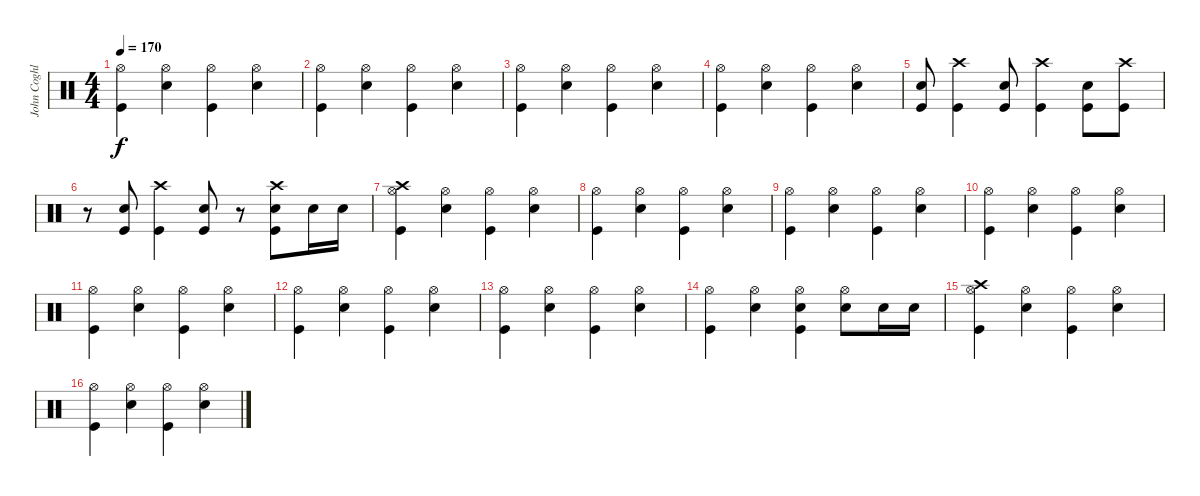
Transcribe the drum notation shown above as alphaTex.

\track ("John Coghlan" "John Coghl") {instrument percussion}
\staff {score}
\articulation defaults
\ts (4 4)
\tempo 170
\clef neutral
\ks c
("Hi-Hat (open)" "Kick (hit)").4{dy f} ("Electric Snare (hit)" "Hi-Hat (open)").4 ("Hi-Hat (open)" "Kick (hit)").4 ("Electric Snare (hit)" "Hi-Hat (open)").4 |
("Hi-Hat (open)" "Kick (hit)").4 ("Electric Snare (hit)" "Hi-Hat (open)").4 ("Hi-Hat (open)" "Kick (hit)").4 ("Electric Snare (hit)" "Hi-Hat (open)").4 |
("Hi-Hat (open)" "Kick (hit)").4 ("Electric Snare (hit)" "Hi-Hat (open)").4 ("Hi-Hat (open)" "Kick (hit)").4 ("Electric Snare (hit)" "Hi-Hat (open)").4 |
("Hi-Hat (open)" "Kick (hit)").4 ("Electric Snare (hit)" "Hi-Hat (open)").4 ("Hi-Hat (open)" "Kick (hit)").4 ("Electric Snare (hit)" "Hi-Hat (open)").4 |
("Electric Snare (hit)" "Kick (hit)").8 ("Crash high (hit)" "Kick (hit)").4 ("Electric Snare (hit)" "Kick (hit)").8 ("Crash high (hit)" "Kick (hit)").4 ("Electric Snare (hit)" "Kick (hit)").8 ("Crash high (hit)" "Kick (hit)").8 |
r.8 ("Electric Snare (hit)" "Kick (hit)").8 ("Crash high (hit)" "Kick (hit)").4 ("Electric Snare (hit)" "Kick (hit)").8 r.8 ("Crash high (hit)" "Electric Snare (hit)" "Kick (hit)").8 "Electric Snare (hit)".16 "Electric Snare (hit)".16 |
("Crash high (hit)" "Hi-Hat (open)" "Kick (hit)").4 ("Electric Snare (hit)" "Hi-Hat (open)").4 ("Hi-Hat (open)" "Kick (hit)").4 ("Electric Snare (hit)" "Hi-Hat (open)").4 |
("Hi-Hat (open)" "Kick (hit)").4 ("Electric Snare (hit)" "Hi-Hat (open)").4 ("Hi-Hat (open)" "Kick (hit)").4 ("Electric Snare (hit)" "Hi-Hat (open)").4 |
("Hi-Hat (open)" "Kick (hit)").4 ("Electric Snare (hit)" "Hi-Hat (open)").4 ("Hi-Hat (open)" "Kick (hit)").4 ("Electric Snare (hit)" "Hi-Hat (open)").4 |
("Hi-Hat (open)" "Kick (hit)").4 ("Electric Snare (hit)" "Hi-Hat (open)").4 ("Hi-Hat (open)" "Kick (hit)").4 ("Electric Snare (hit)" "Hi-Hat (open)").4 |
("Hi-Hat (open)" "Kick (hit)").4 ("Electric Snare (hit)" "Hi-Hat (open)").4 ("Hi-Hat (open)" "Kick (hit)").4 ("Electric Snare (hit)" "Hi-Hat (open)").4 |
("Hi-Hat (open)" "Kick (hit)").4 ("Electric Snare (hit)" "Hi-Hat (open)").4 ("Hi-Hat (open)" "Kick (hit)").4 ("Electric Snare (hit)" "Hi-Hat (open)").4 |
("Hi-Hat (open)" "Kick (hit)").4 ("Electric Snare (hit)" "Hi-Hat (open)").4 ("Hi-Hat (open)" "Kick (hit)").4 ("Electric Snare (hit)" "Hi-Hat (open)").4 |
("Hi-Hat (open)" "Kick (hit)").4 ("Electric Snare (hit)" "Hi-Hat (open)").4 ("Electric Snare (hit)" "Hi-Hat (open)" "Kick (hit)").4 ("Electric Snare (hit)" "Hi-Hat (open)").8 "Electric Snare (hit)".16 "Electric Snare (hit)".16 |
("Crash high (hit)" "Hi-Hat (open)" "Kick (hit)").4 ("Electric Snare (hit)" "Hi-Hat (open)").4 ("Hi-Hat (open)" "Kick (hit)").4 ("Electric Snare (hit)" "Hi-Hat (open)").4 |
("Hi-Hat (open)" "Kick (hit)").4 ("Electric Snare (hit)" "Hi-Hat (open)").4 ("Hi-Hat (open)" "Kick (hit)").4 ("Electric Snare (hit)" "Hi-Hat (open)").4
